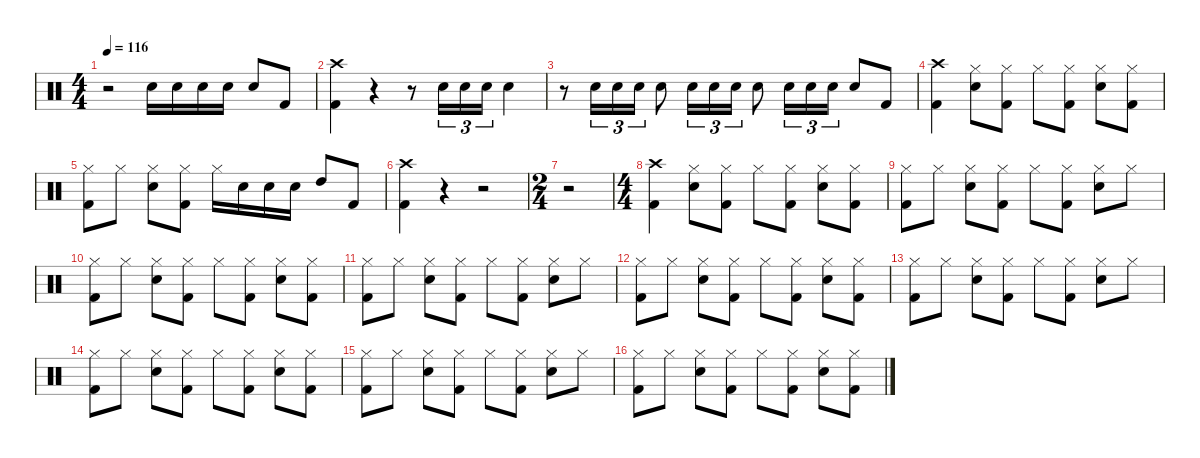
\defaultSystemsLayout 4
\hideDynamics
\bracketExtendMode nobrackets
\singleTrackTrackNamePolicy hidden
\multiTrackTrackNamePolicy hidden
\firstSystemTrackNameMode fullname
\firstSystemTrackNameOrientation horizontal
\otherSystemsTrackNameOrientation horizontal
\track ("Drums" "drm.") {instrument percussion}
\staff {score}
\articulation defaults
\ts (4 4)
\tempo 116
\clef neutral
\ks c
r.2{dy f beam Down} "Snare (hit) 2".16{beam Down} "Snare (hit) 2".16{beam Down} "Snare (hit) 2".16{beam Down} "Snare (hit) 2".16{beam Down} "Snare (hit) 2".8{beam Up} "Kick (hit) 2".8{beam Up} |
("Crash high (hit)" "Kick (hit) 2").4{beam Down} r.4{beam Down} r.8{beam Down} "Snare (hit) 2".16{tu (3 2) beam Down} "Snare (hit) 2".16{tu (3 2) beam Down} "Snare (hit) 2".16{tu (3 2) beam Down} "Snare (hit) 2".4{beam Down} |
r.8{beam Down} "Snare (hit) 2".16{tu (3 2) beam Down} "Snare (hit) 2".16{tu (3 2) beam Down} "Snare (hit) 2".16{tu (3 2) beam Down} "Snare (hit) 2".8{beam Down} "Snare (hit) 2".16{tu (3 2) beam Down} "Snare (hit) 2".16{tu (3 2) beam Down} "Snare (hit) 2".16{tu (3 2) beam Down} "Snare (hit) 2".8{beam Down} "Snare (hit) 2".16{tu (3 2) beam Down} "Snare (hit) 2".16{tu (3 2) beam Down} "Snare (hit) 2".16{tu (3 2) beam Down} "Snare (hit) 2".8{beam Up} "Kick (hit) 2".8{beam Up} |
("Crash high (hit)" "Kick (hit) 2").4{beam Down} ("Hi-Hat (closed)" "Snare (hit) 2").8{beam Down} ("Hi-Hat (closed)" "Kick (hit) 2").8{beam Down} "Hi-Hat (closed)".8{beam Down} ("Hi-Hat (closed)" "Kick (hit) 2").8{beam Down} ("Hi-Hat (closed)" "Snare (hit) 2").8{beam Down} ("Hi-Hat (closed)" "Kick (hit) 2").8{beam Down} |
("Hi-Hat (closed)" "Kick (hit) 2").8{beam Down} "Hi-Hat (closed)".8{beam Down} ("Hi-Hat (closed)" "Snare (hit) 2").8{beam Down} ("Hi-Hat (closed)" "Kick (hit) 2").8{beam Down} "Hi-Hat (closed)".16{beam Down} "Snare (hit) 2".16{beam Down} "Snare (hit) 2".16{beam Down} "Snare (hit) 2".16{beam Down} "High Tom (hit)".8{beam Up} "Kick (hit) 2".8{beam Up} |
("Crash high (hit)" "Kick (hit) 2").4{beam Down} r.4{beam Down} r.2{beam Down} |
\ts (2 4)
r.2{beam Down} |
\ts (4 4)
("Crash high (hit)" "Kick (hit) 2").4{beam Down} ("Hi-Hat (closed)" "Snare (hit) 2").8{beam Down} ("Hi-Hat (closed)" "Kick (hit) 2").8{beam Down} "Hi-Hat (closed)".8{beam Down} ("Hi-Hat (closed)" "Kick (hit) 2").8{beam Down} ("Hi-Hat (closed)" "Snare (hit) 2").8{beam Down} ("Hi-Hat (closed)" "Kick (hit) 2").8{beam Down} |
("Hi-Hat (closed)" "Kick (hit) 2").8{beam Down} "Hi-Hat (closed)".8{beam Down} ("Hi-Hat (closed)" "Snare (hit) 2").8{beam Down} ("Hi-Hat (closed)" "Kick (hit) 2").8{beam Down} "Hi-Hat (closed)".8{beam Down} ("Hi-Hat (closed)" "Kick (hit) 2").8{beam Down} ("Hi-Hat (closed)" "Snare (hit) 2").8{beam Down} "Hi-Hat (closed)".8{beam Down} |
("Hi-Hat (closed)" "Kick (hit) 2").8{beam Down} "Hi-Hat (closed)".8{beam Down} ("Hi-Hat (closed)" "Snare (hit) 2").8{beam Down} ("Hi-Hat (closed)" "Kick (hit) 2").8{beam Down} "Hi-Hat (closed)".8{beam Down} ("Hi-Hat (closed)" "Kick (hit) 2").8{beam Down} ("Hi-Hat (closed)" "Snare (hit) 2").8{beam Down} ("Hi-Hat (closed)" "Kick (hit) 2").8{beam Down} |
("Hi-Hat (closed)" "Kick (hit) 2").8{beam Down} "Hi-Hat (closed)".8{beam Down} ("Hi-Hat (closed)" "Snare (hit) 2").8{beam Down} ("Hi-Hat (closed)" "Kick (hit) 2").8{beam Down} "Hi-Hat (closed)".8{beam Down} ("Hi-Hat (closed)" "Kick (hit) 2").8{beam Down} ("Hi-Hat (closed)" "Snare (hit) 2").8{beam Down} "Hi-Hat (closed)".8{beam Down} |
("Hi-Hat (closed)" "Kick (hit) 2").8{beam Down} "Hi-Hat (closed)".8{beam Down} ("Hi-Hat (closed)" "Snare (hit) 2").8{beam Down} ("Hi-Hat (closed)" "Kick (hit) 2").8{beam Down} "Hi-Hat (closed)".8{beam Down} ("Hi-Hat (closed)" "Kick (hit) 2").8{beam Down} ("Hi-Hat (closed)" "Snare (hit) 2").8{beam Down} ("Hi-Hat (closed)" "Kick (hit) 2").8{beam Down} |
("Hi-Hat (closed)" "Kick (hit) 2").8{beam Down} "Hi-Hat (closed)".8{beam Down} ("Hi-Hat (closed)" "Snare (hit) 2").8{beam Down} ("Hi-Hat (closed)" "Kick (hit) 2").8{beam Down} "Hi-Hat (closed)".8{beam Down} ("Hi-Hat (closed)" "Kick (hit) 2").8{beam Down} ("Hi-Hat (closed)" "Snare (hit) 2").8{beam Down} "Hi-Hat (closed)".8{beam Down} |
("Hi-Hat (closed)" "Kick (hit) 2").8{beam Down} "Hi-Hat (closed)".8{beam Down} ("Hi-Hat (closed)" "Snare (hit) 2").8{beam Down} ("Hi-Hat (closed)" "Kick (hit) 2").8{beam Down} "Hi-Hat (closed)".8{beam Down} ("Hi-Hat (closed)" "Kick (hit) 2").8{beam Down} ("Hi-Hat (closed)" "Snare (hit) 2").8{beam Down} ("Hi-Hat (closed)" "Kick (hit) 2").8{beam Down} |
("Hi-Hat (closed)" "Kick (hit) 2").8{beam Down} "Hi-Hat (closed)".8{beam Down} ("Hi-Hat (closed)" "Snare (hit) 2").8{beam Down} ("Hi-Hat (closed)" "Kick (hit) 2").8{beam Down} "Hi-Hat (closed)".8{beam Down} ("Hi-Hat (closed)" "Kick (hit) 2").8{beam Down} ("Hi-Hat (closed)" "Snare (hit) 2").8{beam Down} "Hi-Hat (closed)".8{beam Down} |
("Hi-Hat (closed)" "Kick (hit) 2").8{beam Down} "Hi-Hat (closed)".8{beam Down} ("Hi-Hat (closed)" "Snare (hit) 2").8{beam Down} ("Hi-Hat (closed)" "Kick (hit) 2").8{beam Down} "Hi-Hat (closed)".8{beam Down} ("Hi-Hat (closed)" "Kick (hit) 2").8{beam Down} ("Hi-Hat (closed)" "Snare (hit) 2").8{beam Down} ("Hi-Hat (closed)" "Kick (hit) 2").8{beam Down}
